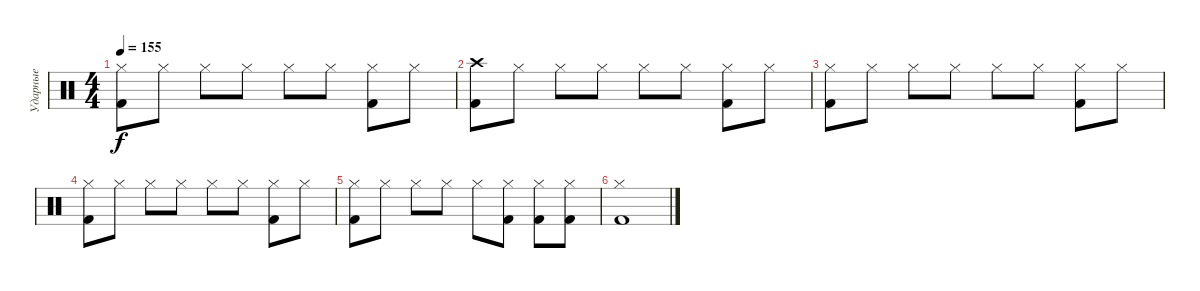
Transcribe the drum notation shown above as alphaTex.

\track ("Ударные" "Ударные") {instrument percussion}
\staff {score}
\articulation defaults
\ts (4 4)
\tempo 155
\clef neutral
\ks c
("Hi-Hat (closed)" "Kick (hit) 2").8{dy f} "Hi-Hat (closed)".8 "Hi-Hat (closed)".8 "Hi-Hat (closed)".8 "Hi-Hat (closed)".8 "Hi-Hat (closed)".8 ("Hi-Hat (closed)" "Kick (hit) 2").8 "Hi-Hat (closed)".8 |
("Crash high (hit)" "Kick (hit) 2").8 "Hi-Hat (closed)".8 "Hi-Hat (closed)".8 "Hi-Hat (closed)".8 "Hi-Hat (closed)".8 "Hi-Hat (closed)".8 ("Hi-Hat (closed)" "Kick (hit) 2").8 "Hi-Hat (closed)".8 |
("Hi-Hat (closed)" "Kick (hit) 2").8 "Hi-Hat (closed)".8 "Hi-Hat (closed)".8 "Hi-Hat (closed)".8 "Hi-Hat (closed)".8 "Hi-Hat (closed)".8 ("Hi-Hat (closed)" "Kick (hit) 2").8 "Hi-Hat (closed)".8 |
("Hi-Hat (closed)" "Kick (hit) 2").8 "Hi-Hat (closed)".8 "Hi-Hat (closed)".8 "Hi-Hat (closed)".8 "Hi-Hat (closed)".8 "Hi-Hat (closed)".8 ("Hi-Hat (closed)" "Kick (hit) 2").8 "Hi-Hat (closed)".8 |
("Hi-Hat (closed)" "Kick (hit) 2").8 "Hi-Hat (closed)".8 "Hi-Hat (closed)".8 "Hi-Hat (closed)".8 "Hi-Hat (closed)".8 ("Hi-Hat (closed)" "Kick (hit) 2").8 ("Hi-Hat (closed)" "Kick (hit) 2").8 ("Hi-Hat (closed)" "Kick (hit) 2").8 |
("Hi-Hat (closed)" "Kick (hit) 2").1
